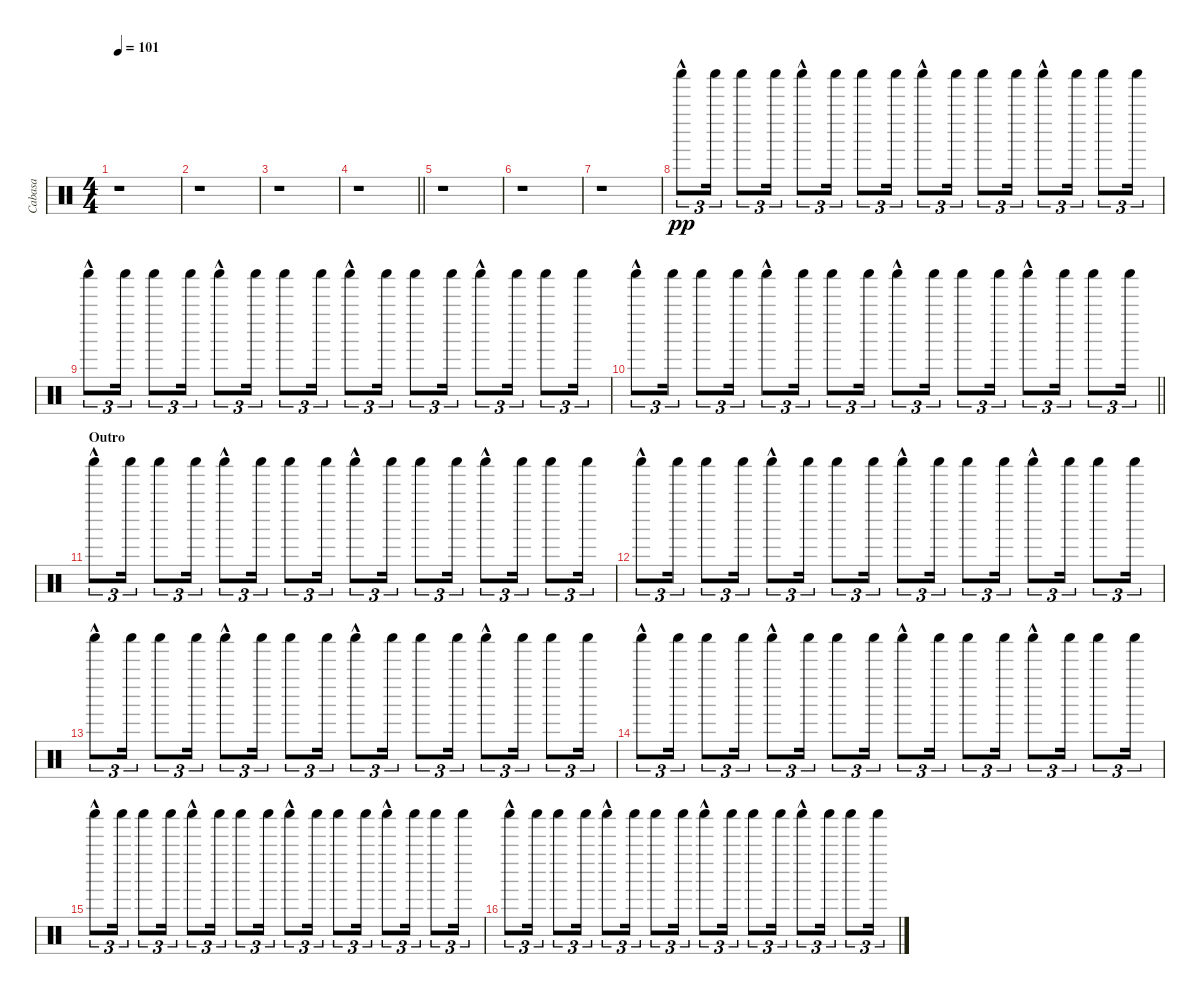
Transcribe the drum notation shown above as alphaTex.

\track ("Cabasa" "Cabasa") {instrument percussion}
\staff {score}
\articulation defaults
\ts (4 4)
\tempo 101
\clef neutral
\ks c
r.1{dy pp} |
r.1 |
r.1 |
\barLineRight lightlight
r.1 |
r.1 |
r.1 |
r.1{volume 0} |
"Shaker (hit)"{hac}.8{tu (3 2) volume 14} "Shaker (hit)".16{tu (3 2)} "Shaker (hit)".8{tu (3 2)} "Shaker (hit)".16{tu (3 2)} "Shaker (hit)"{hac}.8{tu (3 2)} "Shaker (hit)".16{tu (3 2)} "Shaker (hit)".8{tu (3 2)} "Shaker (hit)".16{tu (3 2)} "Shaker (hit)"{hac}.8{tu (3 2)} "Shaker (hit)".16{tu (3 2)} "Shaker (hit)".8{tu (3 2)} "Shaker (hit)".16{tu (3 2)} "Shaker (hit)"{hac}.8{tu (3 2)} "Shaker (hit)".16{tu (3 2)} "Shaker (hit)".8{tu (3 2)} "Shaker (hit)".16{tu (3 2)} |
"Shaker (hit)"{hac}.8{tu (3 2)} "Shaker (hit)".16{tu (3 2)} "Shaker (hit)".8{tu (3 2)} "Shaker (hit)".16{tu (3 2)} "Shaker (hit)"{hac}.8{tu (3 2)} "Shaker (hit)".16{tu (3 2)} "Shaker (hit)".8{tu (3 2)} "Shaker (hit)".16{tu (3 2)} "Shaker (hit)"{hac}.8{tu (3 2)} "Shaker (hit)".16{tu (3 2)} "Shaker (hit)".8{tu (3 2)} "Shaker (hit)".16{tu (3 2)} "Shaker (hit)"{hac}.8{tu (3 2)} "Shaker (hit)".16{tu (3 2)} "Shaker (hit)".8{tu (3 2)} "Shaker (hit)".16{tu (3 2)} |
\barLineRight lightlight "Shaker (hit)"{hac}.8{tu (3 2)} "Shaker (hit)".16{tu (3 2)} "Shaker (hit)".8{tu (3 2)} "Shaker (hit)".16{tu (3 2)} "Shaker (hit)"{hac}.8{tu (3 2)} "Shaker (hit)".16{tu (3 2)} "Shaker (hit)".8{tu (3 2)} "Shaker (hit)".16{tu (3 2)} "Shaker (hit)"{hac}.8{tu (3 2)} "Shaker (hit)".16{tu (3 2)} "Shaker (hit)".8{tu (3 2)} "Shaker (hit)".16{tu (3 2)} "Shaker (hit)"{hac}.8{tu (3 2)} "Shaker (hit)".16{tu (3 2)} "Shaker (hit)".8{tu (3 2)} "Shaker (hit)".16{tu (3 2)}
|
\section ("" "Outro")
"Shaker (hit)"{hac}.8{tu (3 2)} "Shaker (hit)".16{tu (3 2)} "Shaker (hit)".8{tu (3 2)} "Shaker (hit)".16{tu (3 2)} "Shaker (hit)"{hac}.8{tu (3 2)} "Shaker (hit)".16{tu (3 2)} "Shaker (hit)".8{tu (3 2)} "Shaker (hit)".16{tu (3 2)} "Shaker (hit)"{hac}.8{tu (3 2)} "Shaker (hit)".16{tu (3 2)} "Shaker (hit)".8{tu (3 2)} "Shaker (hit)".16{tu (3 2)} "Shaker (hit)"{hac}.8{tu (3 2)} "Shaker (hit)".16{tu (3 2)} "Shaker (hit)".8{tu (3 2)} "Shaker (hit)".16{tu (3 2)} |
"Shaker (hit)"{hac}.8{tu (3 2)} "Shaker (hit)".16{tu (3 2)} "Shaker (hit)".8{tu (3 2)} "Shaker (hit)".16{tu (3 2)} "Shaker (hit)"{hac}.8{tu (3 2)} "Shaker (hit)".16{tu (3 2)} "Shaker (hit)".8{tu (3 2)} "Shaker (hit)".16{tu (3 2)} "Shaker (hit)"{hac}.8{tu (3 2)} "Shaker (hit)".16{tu (3 2)} "Shaker (hit)".8{tu (3 2)} "Shaker (hit)".16{tu (3 2)} "Shaker (hit)"{hac}.8{tu (3 2)} "Shaker (hit)".16{tu (3 2)} "Shaker (hit)".8{tu (3 2)} "Shaker (hit)".16{tu (3 2)} |
"Shaker (hit)"{hac}.8{tu (3 2)} "Shaker (hit)".16{tu (3 2)} "Shaker (hit)".8{tu (3 2)} "Shaker (hit)".16{tu (3 2)} "Shaker (hit)"{hac}.8{tu (3 2)} "Shaker (hit)".16{tu (3 2)} "Shaker (hit)".8{tu (3 2)} "Shaker (hit)".16{tu (3 2)} "Shaker (hit)"{hac}.8{tu (3 2)} "Shaker (hit)".16{tu (3 2)} "Shaker (hit)".8{tu (3 2)} "Shaker (hit)".16{tu (3 2)} "Shaker (hit)"{hac}.8{tu (3 2)} "Shaker (hit)".16{tu (3 2)} "Shaker (hit)".8{tu (3 2)} "Shaker (hit)".16{tu (3 2)} |
"Shaker (hit)"{hac}.8{tu (3 2)} "Shaker (hit)".16{tu (3 2)} "Shaker (hit)".8{tu (3 2)} "Shaker (hit)".16{tu (3 2)} "Shaker (hit)"{hac}.8{tu (3 2)} "Shaker (hit)".16{tu (3 2)} "Shaker (hit)".8{tu (3 2)} "Shaker (hit)".16{tu (3 2)} "Shaker (hit)"{hac}.8{tu (3 2)} "Shaker (hit)".16{tu (3 2)} "Shaker (hit)".8{tu (3 2)} "Shaker (hit)".16{tu (3 2)} "Shaker (hit)"{hac}.8{tu (3 2)} "Shaker (hit)".16{tu (3 2)} "Shaker (hit)".8{tu (3 2)} "Shaker (hit)".16{tu (3 2)} |
"Shaker (hit)"{hac}.8{tu (3 2)} "Shaker (hit)".16{tu (3 2)} "Shaker (hit)".8{tu (3 2)} "Shaker (hit)".16{tu (3 2)} "Shaker (hit)"{hac}.8{tu (3 2)} "Shaker (hit)".16{tu (3 2)} "Shaker (hit)".8{tu (3 2)} "Shaker (hit)".16{tu (3 2)} "Shaker (hit)"{hac}.8{tu (3 2)} "Shaker (hit)".16{tu (3 2)} "Shaker (hit)".8{tu (3 2)} "Shaker (hit)".16{tu (3 2)} "Shaker (hit)"{hac}.8{tu (3 2)} "Shaker (hit)".16{tu (3 2)} "Shaker (hit)".8{tu (3 2)} "Shaker (hit)".16{tu (3 2)} |
"Shaker (hit)"{hac}.8{tu (3 2)} "Shaker (hit)".16{tu (3 2)} "Shaker (hit)".8{tu (3 2)} "Shaker (hit)".16{tu (3 2)} "Shaker (hit)"{hac}.8{tu (3 2)} "Shaker (hit)".16{tu (3 2)} "Shaker (hit)".8{tu (3 2)} "Shaker (hit)".16{tu (3 2)} "Shaker (hit)"{hac}.8{tu (3 2)} "Shaker (hit)".16{tu (3 2)} "Shaker (hit)".8{tu (3 2)} "Shaker (hit)".16{tu (3 2)} "Shaker (hit)"{hac}.8{tu (3 2)} "Shaker (hit)".16{tu (3 2)} "Shaker (hit)".8{tu (3 2)} "Shaker (hit)".16{tu (3 2)}
